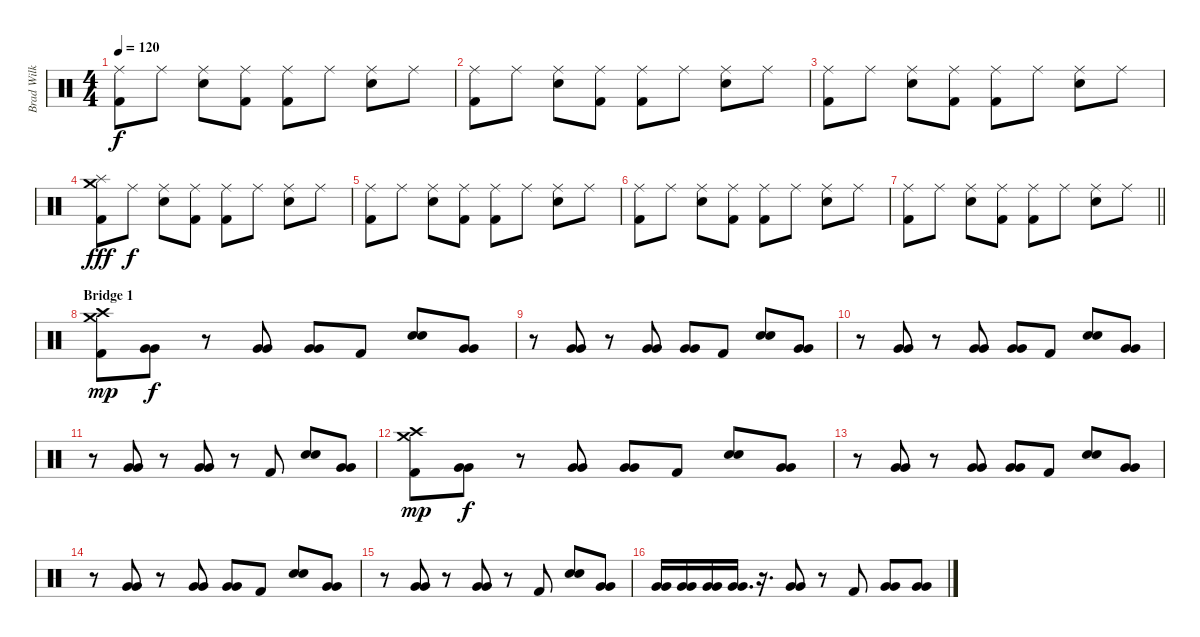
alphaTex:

\track ("Brad Wilk" "Brad Wilk") {instrument percussion}
\staff {score}
\articulation defaults
\ts (4 4)
\tempo 120
\clef neutral
\ks c
("Ride (middle)" "Kick (hit) 2").8{dy f} "Ride (middle)".8 ("Ride (middle)" "Electric Snare (hit)").8 ("Ride (middle)" "Kick (hit) 2").8 ("Ride (middle)" "Kick (hit) 2").8 "Ride (middle)".8 ("Ride (middle)" "Electric Snare (hit)").8 "Ride (middle)".8 |
("Ride (middle)" "Kick (hit) 2").8 "Ride (middle)".8 ("Ride (middle)" "Electric Snare (hit)").8 ("Ride (middle)" "Kick (hit) 2").8 ("Ride (middle)" "Kick (hit) 2").8 "Ride (middle)".8 ("Ride (middle)" "Electric Snare (hit)").8 "Ride (middle)".8 |
("Ride (middle)" "Kick (hit) 2").8 "Ride (middle)".8 ("Ride (middle)" "Electric Snare (hit)").8 ("Ride (middle)" "Kick (hit) 2").8 ("Ride (middle)" "Kick (hit) 2").8 "Ride (middle)".8 ("Ride (middle)" "Electric Snare (hit)").8 "Ride (middle)".8 |
("Crash medium (hit)" "Splash (hit)" "Kick (hit) 2").8{dy fff} "Ride (middle)".8{dy f} ("Ride (middle)" "Electric Snare (hit)").8 ("Ride (middle)" "Kick (hit) 2").8 ("Ride (middle)" "Kick (hit) 2").8 "Ride (middle)".8 ("Ride (middle)" "Electric Snare (hit)").8 "Ride (middle)".8 |
("Ride (middle)" "Kick (hit) 2").8 "Ride (middle)".8 ("Ride (middle)" "Electric Snare (hit)").8 ("Ride (middle)" "Kick (hit) 2").8 ("Ride (middle)" "Kick (hit) 2").8 "Ride (middle)".8 ("Ride (middle)" "Electric Snare (hit)").8 "Ride (middle)".8 |
("Ride (middle)" "Kick (hit) 2").8 "Ride (middle)".8 ("Ride (middle)" "Electric Snare (hit)").8 ("Ride (middle)" "Kick (hit) 2").8 ("Ride (middle)" "Kick (hit) 2").8 "Ride (middle)".8 ("Ride (middle)" "Electric Snare (hit)").8 "Ride (middle)".8 |
\barLineRight lightlight
("Ride (middle)" "Kick (hit) 2").8 "Ride (middle)".8 ("Ride (middle)" "Electric Snare (hit)").8 ("Ride (middle)" "Kick (hit) 2").8 ("Ride (middle)" "Kick (hit) 2").8 "Ride (middle)".8 ("Ride (middle)" "Electric Snare (hit)").8 "Ride (middle)".8 |
\section ("" "Bridge 1")
("Crash medium (hit)" "Crash high (hit)" "Kick (hit) 2").8{dy mp} ("Very Low Tom (hit)" "Very Low Tom (hit)").8{bu 240 dy f} r.8 ("Very Low Tom (hit)" "Very Low Tom (hit)").8{bu 240} ("Very Low Tom (hit)" "Very Low Tom (hit)").8{bu 240} "Kick (hit) 2".8 ("Electric Snare (hit)" "Electric Snare (hit)").8{bu 240} ("Very Low Tom (hit)" "Very Low Tom (hit)").8{bd 240} |
r.8 ("Very Low Tom (hit)" "Very Low Tom (hit)").8{bu 240} r.8 ("Very Low Tom (hit)" "Very Low Tom (hit)").8{bu 240} ("Very Low Tom (hit)" "Very Low Tom (hit)").8{bu 240} "Kick (hit) 2".8 ("Electric Snare (hit)" "Electric Snare (hit)").8{bu 240} ("Very Low Tom (hit)" "Very Low Tom (hit)").8{bu 120} |
r.8 ("Very Low Tom (hit)" "Very Low Tom (hit)").8{bu 240} r.8 ("Very Low Tom (hit)" "Very Low Tom (hit)").8{bu 240} ("Very Low Tom (hit)" "Very Low Tom (hit)").8{bu 240} "Kick (hit) 2".8 ("Electric Snare (hit)" "Electric Snare (hit)").8{bu 240} ("Very Low Tom (hit)" "Very Low Tom (hit)").8{bu 240} |
r.8 ("Very Low Tom (hit)" "Very Low Tom (hit)").8{bu 240} r.8 ("Very Low Tom (hit)" "Very Low Tom (hit)").8{bu 240} r.8 "Kick (hit) 2".8 ("Electric Snare (hit)" "Electric Snare (hit)").8{bu 240} ("Very Low Tom (hit)" "Very Low Tom (hit)").8{bu 120} |
("Crash medium (hit)" "Crash high (hit)" "Kick (hit) 2").8{dy mp} ("Very Low Tom (hit)" "Very Low Tom (hit)").8{bu 240 dy f} r.8 ("Very Low Tom (hit)" "Very Low Tom (hit)").8{bu 240} ("Very Low Tom (hit)" "Very Low Tom (hit)").8{bu 240} "Kick (hit) 2".8 ("Electric Snare (hit)" "Electric Snare (hit)").8{bu 240} ("Very Low Tom (hit)" "Very Low Tom (hit)").8{bd 240} |
r.8 ("Very Low Tom (hit)" "Very Low Tom (hit)").8{bu 240} r.8 ("Very Low Tom (hit)" "Very Low Tom (hit)").8{bu 240} ("Very Low Tom (hit)" "Very Low Tom (hit)").8{bu 240} "Kick (hit) 2".8 ("Electric Snare (hit)" "Electric Snare (hit)").8{bu 240} ("Very Low Tom (hit)" "Very Low Tom (hit)").8{bd 240} |
r.8 ("Very Low Tom (hit)" "Very Low Tom (hit)").8{bu 240} r.8 ("Very Low Tom (hit)" "Very Low Tom (hit)").8{bu 240} ("Very Low Tom (hit)" "Very Low Tom (hit)").8{bu 240} "Kick (hit) 2".8 ("Electric Snare (hit)" "Electric Snare (hit)").8{bu 240} ("Very Low Tom (hit)" "Very Low Tom (hit)").8{bu 240} |
r.8 ("Very Low Tom (hit)" "Very Low Tom (hit)").8{bu 240} r.8 ("Very Low Tom (hit)" "Very Low Tom (hit)").8{bu 240} r.8 "Kick (hit) 2".8 ("Electric Snare (hit)" "Electric Snare (hit)").8{bu 240} ("Very Low Tom (hit)" "Very Low Tom (hit)").8{bd 240} |
("Very Low Tom (hit)" "Very Low Tom (hit)").16 ("Very Low Tom (hit)" "Very Low Tom (hit)").16 ("Very Low Tom (hit)" "Very Low Tom (hit)").16 ("Very Low Tom (hit)" "Very Low Tom (hit)").16{d} r.16{d} ("Very Low Tom (hit)" "Very Low Tom (hit)").8{bu 240} r.8 "Kick (hit) 2".8 ("Very Low Tom (hit)" "Very Low Tom (hit)").8{bu 240} ("Very Low Tom (hit)" "Very Low Tom (hit)").8{bd 240}
